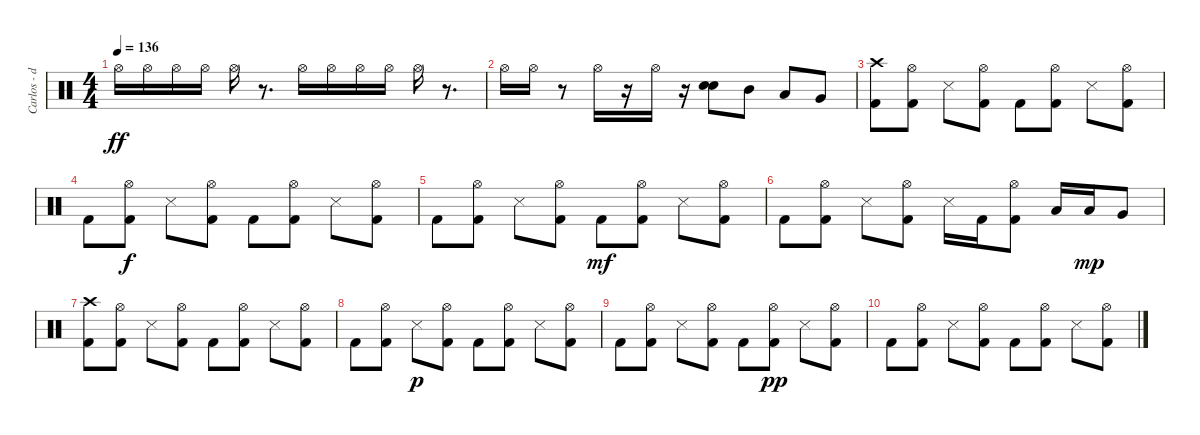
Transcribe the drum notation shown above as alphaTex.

\track ("Carlos - drums" "Carlos - d") {instrument percussion}
\staff {score}
\articulation defaults
\ts (4 4)
\tempo 136
\clef neutral
\ks c "Hi-Hat (open)".16{dy ff} "Hi-Hat (open)".16 "Hi-Hat (open)".16 "Hi-Hat (open)".16 "Hi-Hat (open)".16
r.8{d} "Hi-Hat (open)".16 "Hi-Hat (open)".16 "Hi-Hat (open)".16 "Hi-Hat (open)".16 "Hi-Hat (open)".16 r.8{d} |
"Hi-Hat (open)".16 "Hi-Hat (open)".16 r.8 "Hi-Hat (open)".16 r.16 "Hi-Hat (open)".16 r.16 ("Electric Snare (hit)" "Electric Snare (hit)").8 "Mid Tom (hit)".8 "Low Tom (hit)".8 "Very Low Tom (hit)".8 |
("Kick (hit) 2" "Crash high (hit)").8 ("Hi-Hat (open)" "Kick (hit) 2").8 "Snare (side stick) 3".8 ("Hi-Hat (open)" "Kick (hit) 2").8 "Kick (hit) 2".8 ("Hi-Hat (open)" "Kick (hit) 2").8 "Snare (side stick) 3".8 ("Hi-Hat (open)" "Kick (hit) 2").8 |
"Kick (hit) 2".8 ("Hi-Hat (open)" "Kick (hit) 2").8{dy f} "Snare (side stick) 3".8 ("Hi-Hat (open)" "Kick (hit) 2").8 "Kick (hit) 2".8 ("Hi-Hat (open)" "Kick (hit) 2").8 "Snare (side stick) 3".8 ("Hi-Hat (open)" "Kick (hit) 2").8 |
"Kick (hit) 2".8 ("Hi-Hat (open)" "Kick (hit) 2").8 "Snare (side stick) 3".8 ("Hi-Hat (open)" "Kick (hit) 2").8 "Kick (hit) 2".8{dy mf} ("Hi-Hat (open)" "Kick (hit) 2").8 "Snare (side stick) 3".8 ("Hi-Hat (open)" "Kick (hit) 2").8 |
"Kick (hit) 2".8 ("Hi-Hat (open)" "Kick (hit) 2").8 "Snare (side stick) 3".8 ("Hi-Hat (open)" "Kick (hit) 2").8 "Snare (side stick) 3".16 "Kick (hit) 2".16 ("Kick (hit) 2" "Hi-Hat (open)").8 "Low Tom (hit)".16 "Low Tom (hit)".16{dy mp} "Very Low Tom (hit)".8 |
("Kick (hit) 2" "Crash high (hit)").8 ("Hi-Hat (open)" "Kick (hit) 2").8 "Snare (side stick) 3".8 ("Hi-Hat (open)" "Kick (hit) 2").8 "Kick (hit) 2".8 ("Hi-Hat (open)" "Kick (hit) 2").8 "Snare (side stick) 3".8 ("Hi-Hat (open)" "Kick (hit) 2").8 |
"Kick (hit) 2".8 ("Hi-Hat (open)" "Kick (hit) 2").8 "Snare (side stick) 3".8{dy p} ("Hi-Hat (open)" "Kick (hit) 2").8 "Kick (hit) 2".8 ("Hi-Hat (open)" "Kick (hit) 2").8 "Snare (side stick) 3".8 ("Hi-Hat (open)" "Kick (hit) 2").8 |
"Kick (hit) 2".8 ("Hi-Hat (open)" "Kick (hit) 2").8 "Snare (side stick) 3".8 ("Hi-Hat (open)" "Kick (hit) 2").8 "Kick (hit) 2".8 ("Hi-Hat (open)" "Kick (hit) 2").8{dy pp} "Snare (side stick) 3".8 ("Hi-Hat (open)" "Kick (hit) 2").8 |
"Kick (hit) 2".8 ("Hi-Hat (open)" "Kick (hit) 2").8 "Snare (side stick) 3".8 ("Hi-Hat (open)" "Kick (hit) 2").8 "Kick (hit) 2".8 ("Hi-Hat (open)" "Kick (hit) 2").8 "Snare (side stick) 3".8 ("Hi-Hat (open)" "Kick (hit) 2").8
